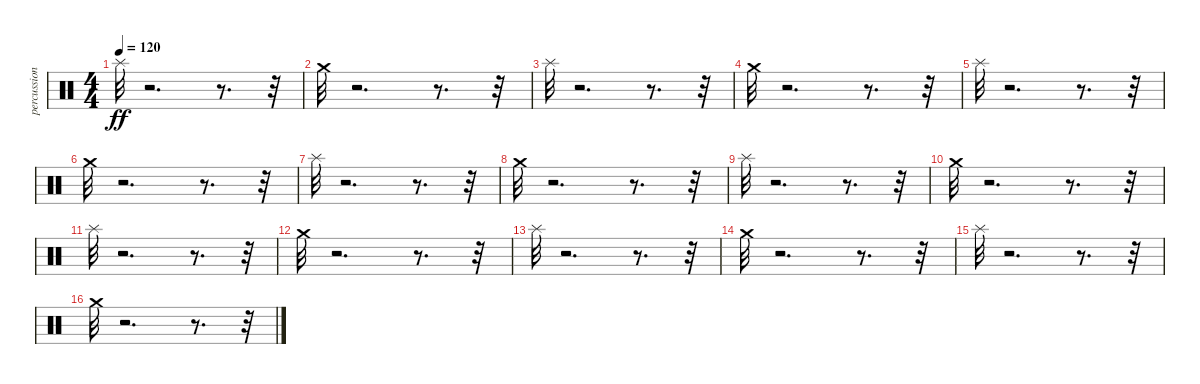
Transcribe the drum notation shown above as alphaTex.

\track ("percussion" "percussion") {instrument percussion}
\staff {score}
\articulation defaults
\ts (4 4)
\tempo 120
\clef neutral
\ks c "Splash (hit)".32{dy ff}
r.2{d} r.8{d} r.32 |
"Crash medium (hit)".32 r.2{d} r.8{d} r.32 |
"Splash (hit)".32 r.2{d} r.8{d} r.32 |
"Crash medium (hit)".32 r.2{d} r.8{d} r.32 |
"Splash (hit)".32 r.2{d} r.8{d} r.32 |
"Crash medium (hit)".32 r.2{d} r.8{d} r.32 |
"Splash (hit)".32 r.2{d} r.8{d} r.32 |
"Crash medium (hit)".32 r.2{d} r.8{d} r.32 |
"Splash (hit)".32 r.2{d} r.8{d} r.32 |
"Crash medium (hit)".32 r.2{d} r.8{d} r.32 |
"Splash (hit)".32 r.2{d} r.8{d} r.32 |
"Crash medium (hit)".32 r.2{d} r.8{d} r.32 |
"Splash (hit)".32 r.2{d} r.8{d} r.32 |
"Crash medium (hit)".32 r.2{d} r.8{d} r.32 |
"Splash (hit)".32 r.2{d} r.8{d} r.32 |
"Crash medium (hit)".32 r.2{d} r.8{d} r.32
